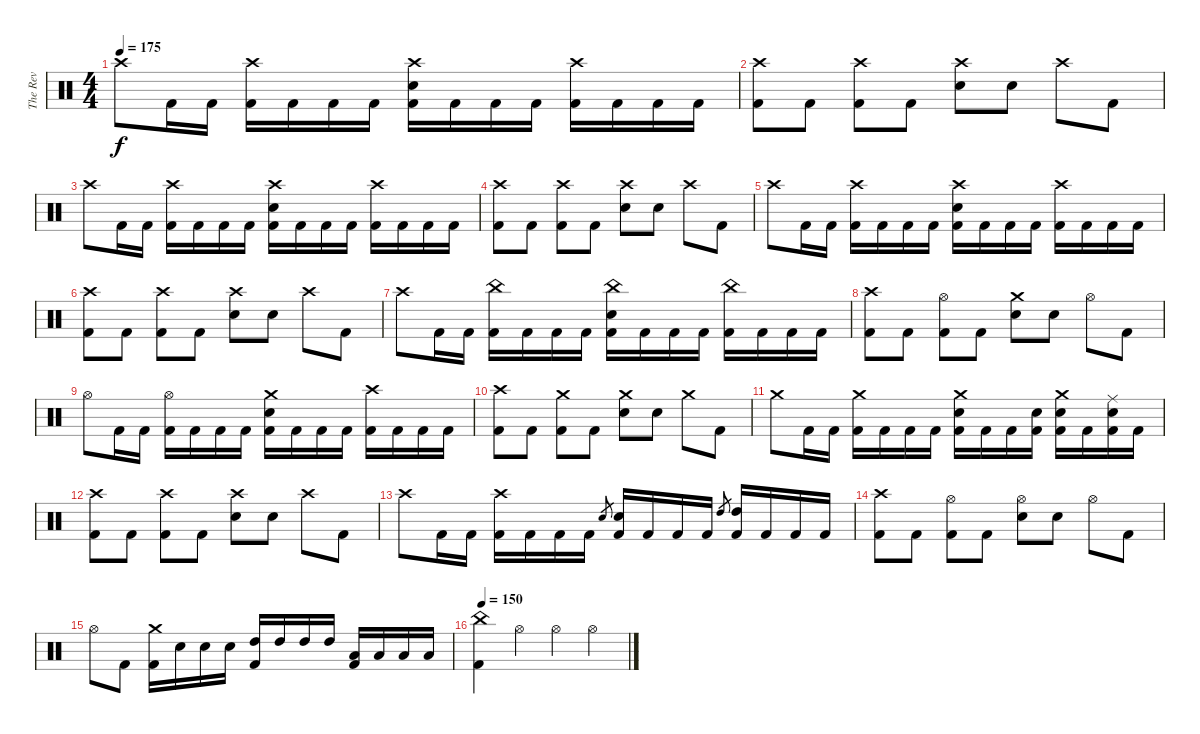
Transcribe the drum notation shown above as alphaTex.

\track ("The Rev" "The Rev") {instrument percussion}
\staff {score}
\articulation defaults
\ts (4 4)
\tempo 175
\clef neutral
\ks c "Crash high (hit)".8{dy f} "Kick (hit) 2".16 "Kick (hit) 2".16
("Crash high (hit)" "Kick (hit) 2").16 "Kick (hit) 2".16 "Kick (hit) 2".16 "Kick (hit) 2".16 ("Crash high (hit)" "Electric Snare (hit)" "Kick (hit) 2").16 "Kick (hit) 2".16 "Kick (hit) 2".16 "Kick (hit) 2".16 ("Crash high (hit)" "Kick (hit) 2").16 "Kick (hit) 2".16 "Kick (hit) 2".16 "Kick (hit) 2".16 |
("Crash high (hit)" "Kick (hit) 2").8 "Kick (hit) 2".8 ("Crash high (hit)" "Kick (hit) 2").8 "Kick (hit) 2".8 ("Crash high (hit)" "Electric Snare (hit)").8 "Electric Snare (hit)".8 "Crash high (hit)".8 "Kick (hit) 2".8 |
"Crash high (hit)".8 "Kick (hit) 2".16 "Kick (hit) 2".16 ("Crash high (hit)" "Kick (hit) 2").16 "Kick (hit) 2".16 "Kick (hit) 2".16 "Kick (hit) 2".16 ("Crash high (hit)" "Electric Snare (hit)" "Kick (hit) 2").16 "Kick (hit) 2".16 "Kick (hit) 2".16 "Kick (hit) 2".16 ("Crash high (hit)" "Kick (hit) 2").16 "Kick (hit) 2".16 "Kick (hit) 2".16 "Kick (hit) 2".16 |
("Crash high (hit)" "Kick (hit) 2").8 "Kick (hit) 2".8 ("Crash high (hit)" "Kick (hit) 2").8 "Kick (hit) 2".8 ("Crash high (hit)" "Electric Snare (hit)").8 "Electric Snare (hit)".8 "Crash high (hit)".8 "Kick (hit) 2".8 |
"Crash high (hit)".8 "Kick (hit) 2".16 "Kick (hit) 2".16 ("Crash high (hit)" "Kick (hit) 2").16 "Kick (hit) 2".16 "Kick (hit) 2".16 "Kick (hit) 2".16 ("Crash high (hit)" "Electric Snare (hit)" "Kick (hit) 2").16 "Kick (hit) 2".16 "Kick (hit) 2".16 "Kick (hit) 2".16 ("Crash high (hit)" "Kick (hit) 2").16 "Kick (hit) 2".16 "Kick (hit) 2".16 "Kick (hit) 2".16 |
("Crash high (hit)" "Kick (hit) 2").8 "Kick (hit) 2".8 ("Crash high (hit)" "Kick (hit) 2").8 "Kick (hit) 2".8 ("Crash high (hit)" "Electric Snare (hit)").8 "Electric Snare (hit)".8 "Crash high (hit)".8 "Kick (hit) 2".8 |
"Crash high (hit)".8 "Kick (hit) 2".16 "Kick (hit) 2".16 ("China (hit)" "Kick (hit) 2").16 "Kick (hit) 2".16 "Kick (hit) 2".16 "Kick (hit) 2".16 ("China (hit)" "Electric Snare (hit)" "Kick (hit) 2").16 "Kick (hit) 2".16 "Kick (hit) 2".16 "Kick (hit) 2".16 ("China (hit)" "Kick (hit) 2").16 "Kick (hit) 2".16 "Kick (hit) 2".16 "Kick (hit) 2".16 |
("Crash high (hit)" "Kick (hit) 2").8 "Kick (hit) 2".8 ("Hi-Hat (open)" "Kick (hit) 2").8 "Kick (hit) 2".8 ("Crash medium (hit)" "Electric Snare (hit)").8 "Electric Snare (hit)".8 "Hi-Hat (open)".8 "Kick (hit) 2".8 |
"Hi-Hat (open)".8 "Kick (hit) 2".16 "Kick (hit) 2".16 ("Hi-Hat (open)" "Kick (hit) 2").16 "Kick (hit) 2".16 "Kick (hit) 2".16 "Kick (hit) 2".16 ("Crash medium (hit)" "Electric Snare (hit)" "Kick (hit) 2").16 "Kick (hit) 2".16 "Kick (hit) 2".16 "Kick (hit) 2".16 ("Crash high (hit)" "Kick (hit) 2").16 "Kick (hit) 2".16 "Kick (hit) 2".16 "Kick (hit) 2".16 |
("Crash high (hit)" "Kick (hit) 2").8 "Kick (hit) 2".8 ("Crash medium (hit)" "Kick (hit) 2").8 "Kick (hit) 2".8 ("Crash medium (hit)" "Electric Snare (hit)").8 "Electric Snare (hit)".8 "Crash medium (hit)".8 "Kick (hit) 2".8 |
"Crash medium (hit)".8 "Kick (hit) 2".16 "Kick (hit) 2".16 ("Crash medium (hit)" "Kick (hit) 2").16 "Kick (hit) 2".16 "Kick (hit) 2".16 "Kick (hit) 2".16 ("Crash medium (hit)" "Electric Snare (hit)" "Kick (hit) 2").16 "Kick (hit) 2".16 "Kick (hit) 2".16 ("Electric Snare (hit)" "Kick (hit) 2").16 ("Crash medium (hit)" "Electric Snare (hit)" "Kick (hit) 2").16 "Kick (hit) 2".16 ("Ride (middle)" "Electric Snare (hit)" "Kick (hit) 2").16 "Kick (hit) 2".16 |
("Crash high (hit)" "Kick (hit) 2").8 "Kick (hit) 2".8 ("Crash high (hit)" "Kick (hit) 2").8 "Kick (hit) 2".8 ("Crash high (hit)" "Electric Snare (hit)").8 "Electric Snare (hit)".8 "Crash high (hit)".8 "Kick (hit) 2".8 |
"Crash high (hit)".8 "Kick (hit) 2".16 "Kick (hit) 2".16 ("Crash high (hit)" "Kick (hit) 2").16 "Kick (hit) 2".16 "Kick (hit) 2".16 "Kick (hit) 2".16 "Electric Snare (hit)".8{gr} ("Electric Snare (hit)" "Kick (hit) 2").16 "Kick (hit) 2".16 "Kick (hit) 2".16 "Kick (hit) 2".16 "High Tom (hit)".8{gr} ("High Tom (hit)" "Kick (hit) 2").16 "Kick (hit) 2".16 "Kick (hit) 2".16 "Kick (hit) 2".16 |
("Crash high (hit)" "Kick (hit) 2").8 "Kick (hit) 2".8 ("Hi-Hat (open)" "Kick (hit) 2").8 "Kick (hit) 2".8 ("Hi-Hat (open)" "Electric Snare (hit)").8 "Electric Snare (hit)".8 "Hi-Hat (open)".8 "Kick (hit) 2".8 |
"Hi-Hat (open)".8 "Kick (hit) 2".8 ("Crash medium (hit)" "Kick (hit) 2").16 "Electric Snare (hit)".16 "Electric Snare (hit)".16 "Electric Snare (hit)".16 ("High Tom (hit)" "Kick (hit) 2").16 "High Tom (hit)".16 "High Tom (hit)".16 "High Tom (hit)".16 ("Low Tom (hit)" "Kick (hit) 2").16 "Low Tom (hit)".16 "Low Tom (hit)".16 "Low Tom (hit)".16 |
\tempo 150
("China (hit)" "Kick (hit) 2").4 "Hi-Hat (open)".4 "Hi-Hat (open)".4 "Hi-Hat (open)".4
